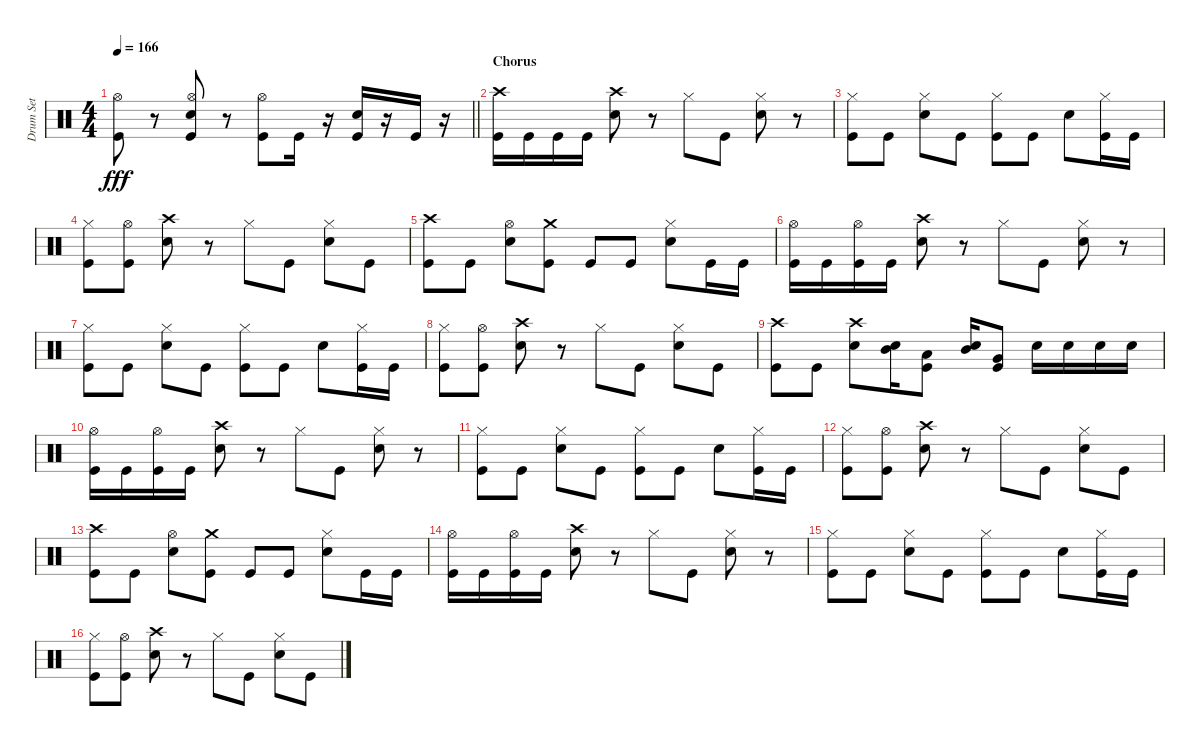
\track ("Drum Set" "Drum Set") {instrument percussion}
\staff {score}
\articulation defaults
\ts (4 4)
\tempo 166
\clef neutral
\barLineRight lightlight
\ks c
("Kick (hit)" "Hi-Hat (open)").8{dy fff} r.8 ("Electric Snare (hit)" "Kick (hit)" "Hi-Hat (open)").8 r.8 ("Kick (hit)" "Hi-Hat (open)").8 "Kick (hit)".16 r.16 ("Electric Snare (hit)" "Kick (hit)").16 r.16 "Kick (hit)".16 r.16 |
\section ("" "Chorus")
("Kick (hit)" "Crash high (hit)").16 "Kick (hit)".16 "Kick (hit)".16 "Kick (hit)".16 ("Electric Snare (hit)" "Crash high (hit)").8 r.8 "Hi-Hat (closed)".8 "Kick (hit)".8 ("Electric Snare (hit)" "Hi-Hat (closed)").8 r.8 |
("Kick (hit)" "Hi-Hat (closed)").8 "Kick (hit)".8 ("Electric Snare (hit)" "Hi-Hat (closed)").8 "Kick (hit)".8 ("Kick (hit)" "Hi-Hat (closed)").8 "Kick (hit)".8 "Electric Snare (hit)".8 ("Kick (hit)" "Hi-Hat (closed)").16 "Kick (hit)".16 |
("Kick (hit)" "Hi-Hat (closed)").8 ("Kick (hit)" "Hi-Hat (open)").8 ("Electric Snare (hit)" "Crash high (hit)").8 r.8 "Hi-Hat (closed)".8 "Kick (hit)".8 ("Electric Snare (hit)" "Hi-Hat (closed)").8 "Kick (hit)".8 |
("Kick (hit)" "Crash high (hit)").8 "Kick (hit)".8 ("Electric Snare (hit)" "Hi-Hat (open)").8 ("Kick (hit)" "Crash medium (hit)").8 "Kick (hit)".8 "Kick (hit)".8 ("Electric Snare (hit)" "Hi-Hat (closed)").8 "Kick (hit)".16 "Kick (hit)".16 |
("Kick (hit)" "Hi-Hat (open)").16 "Kick (hit)".16 ("Kick (hit)" "Hi-Hat (open)").16 "Kick (hit)".16 ("Electric Snare (hit)" "Crash high (hit)").8 r.8 "Hi-Hat (closed)".8 "Kick (hit)".8 ("Electric Snare (hit)" "Hi-Hat (closed)").8 r.8 |
("Kick (hit)" "Hi-Hat (closed)").8 "Kick (hit)".8 ("Electric Snare (hit)" "Hi-Hat (closed)").8 "Kick (hit)".8 ("Kick (hit)" "Hi-Hat (closed)").8 "Kick (hit)".8 "Electric Snare (hit)".8 ("Kick (hit)" "Hi-Hat (closed)").16 "Kick (hit)".16 |
("Kick (hit)" "Hi-Hat (closed)").8 ("Kick (hit)" "Hi-Hat (open)").8 ("Electric Snare (hit)" "Crash high (hit)").8 r.8 "Hi-Hat (closed)".8 "Kick (hit)".8 ("Electric Snare (hit)" "Hi-Hat (closed)").8 "Kick (hit)".8 |
("Kick (hit)" "Crash high (hit)").8 "Kick (hit)".8 ("Electric Snare (hit)" "Crash high (hit)").8 ("Electric Snare (hit)" "Mid Tom (hit)").16 ("Kick (hit)" "Low Tom (hit)").8 ("Electric Snare (hit)" "Mid Tom (hit)").16 ("Kick (hit)" "Very Low Tom (hit)").8 "Electric Snare (hit)".16 "Electric Snare (hit)".16 "Electric Snare (hit)".16 "Electric Snare (hit)".16 |
("Kick (hit)" "Hi-Hat (open)").16 "Kick (hit)".16 ("Kick (hit)" "Hi-Hat (open)").16 "Kick (hit)".16 ("Electric Snare (hit)" "Crash high (hit)").8 r.8 "Hi-Hat (closed)".8 "Kick (hit)".8 ("Electric Snare (hit)" "Hi-Hat (closed)").8 r.8 |
("Kick (hit)" "Hi-Hat (closed)").8 "Kick (hit)".8 ("Electric Snare (hit)" "Hi-Hat (closed)").8 "Kick (hit)".8 ("Kick (hit)" "Hi-Hat (closed)").8 "Kick (hit)".8 "Electric Snare (hit)".8 ("Kick (hit)" "Hi-Hat (closed)").16 "Kick (hit)".16 |
("Kick (hit)" "Hi-Hat (closed)").8 ("Kick (hit)" "Hi-Hat (open)").8 ("Electric Snare (hit)" "Crash high (hit)").8 r.8 "Hi-Hat (closed)".8 "Kick (hit)".8 ("Electric Snare (hit)" "Hi-Hat (closed)").8 "Kick (hit)".8 |
("Kick (hit)" "Crash high (hit)").8 "Kick (hit)".8 ("Electric Snare (hit)" "Hi-Hat (open)").8 ("Kick (hit)" "Crash medium (hit)").8 "Kick (hit)".8 "Kick (hit)".8 ("Electric Snare (hit)" "Hi-Hat (closed)").8 "Kick (hit)".16 "Kick (hit)".16 |
("Kick (hit)" "Hi-Hat (open)").16 "Kick (hit)".16 ("Kick (hit)" "Hi-Hat (open)").16 "Kick (hit)".16 ("Electric Snare (hit)" "Crash high (hit)").8 r.8 "Hi-Hat (closed)".8 "Kick (hit)".8 ("Electric Snare (hit)" "Hi-Hat (closed)").8 r.8 |
("Kick (hit)" "Hi-Hat (closed)").8 "Kick (hit)".8 ("Electric Snare (hit)" "Hi-Hat (closed)").8 "Kick (hit)".8 ("Kick (hit)" "Hi-Hat (closed)").8 "Kick (hit)".8 "Electric Snare (hit)".8 ("Kick (hit)" "Hi-Hat (closed)").16 "Kick (hit)".16 |
("Kick (hit)" "Hi-Hat (closed)").8 ("Kick (hit)" "Hi-Hat (open)").8 ("Electric Snare (hit)" "Crash high (hit)").8 r.8 "Hi-Hat (closed)".8 "Kick (hit)".8 ("Electric Snare (hit)" "Hi-Hat (closed)").8 "Kick (hit)".8
